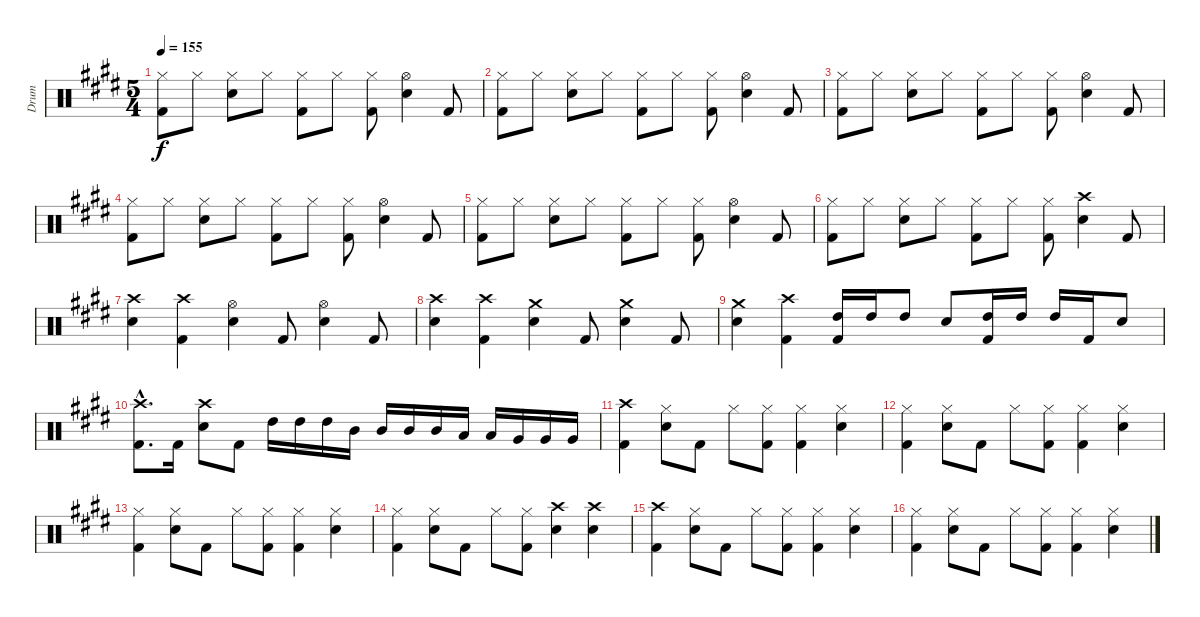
\track ("Drum" "Drum") {instrument percussion}
\staff {score}
\articulation defaults
\ts (5 4)
\tempo 155
\clef neutral
\ks e
("Hi-Hat (closed)" "Kick (hit) 2").8{dy f} "Hi-Hat (closed)".8 ("Hi-Hat (closed)" "Snare (hit) 2").8 "Hi-Hat (closed)".8 ("Hi-Hat (closed)" "Kick (hit) 2").8 "Hi-Hat (closed)".8 ("Hi-Hat (closed)" "Kick (hit) 2").8 ("Hi-Hat (open)" "Snare (hit) 2").4 "Kick (hit) 2".8 |
("Hi-Hat (closed)" "Kick (hit) 2").8 "Hi-Hat (closed)".8 ("Hi-Hat (closed)" "Snare (hit) 2").8 "Hi-Hat (closed)".8 ("Hi-Hat (closed)" "Kick (hit) 2").8 "Hi-Hat (closed)".8 ("Hi-Hat (closed)" "Kick (hit) 2").8 ("Hi-Hat (open)" "Snare (hit) 2").4 "Kick (hit) 2".8 |
("Hi-Hat (closed)" "Kick (hit) 2").8 "Hi-Hat (closed)".8 ("Hi-Hat (closed)" "Snare (hit) 2").8 "Hi-Hat (closed)".8 ("Hi-Hat (closed)" "Kick (hit) 2").8 "Hi-Hat (closed)".8 ("Hi-Hat (closed)" "Kick (hit) 2").8 ("Hi-Hat (open)" "Snare (hit) 2").4 "Kick (hit) 2".8 |
("Hi-Hat (closed)" "Kick (hit) 2").8 "Hi-Hat (closed)".8 ("Hi-Hat (closed)" "Snare (hit) 2").8 "Hi-Hat (closed)".8 ("Hi-Hat (closed)" "Kick (hit) 2").8 "Hi-Hat (closed)".8 ("Hi-Hat (closed)" "Kick (hit) 2").8 ("Hi-Hat (open)" "Snare (hit) 2").4 "Kick (hit) 2".8 |
("Hi-Hat (closed)" "Kick (hit) 2").8 "Hi-Hat (closed)".8 ("Hi-Hat (closed)" "Snare (hit) 2").8 "Hi-Hat (closed)".8 ("Hi-Hat (closed)" "Kick (hit) 2").8 "Hi-Hat (closed)".8 ("Hi-Hat (closed)" "Kick (hit) 2").8 ("Hi-Hat (open)" "Snare (hit) 2").4 "Kick (hit) 2".8 |
("Hi-Hat (closed)" "Kick (hit) 2").8 "Hi-Hat (closed)".8 ("Hi-Hat (closed)" "Snare (hit) 2").8 "Hi-Hat (closed)".8 ("Hi-Hat (closed)" "Kick (hit) 2").8 "Hi-Hat (closed)".8 ("Hi-Hat (closed)" "Kick (hit) 2").8 ("Crash high (hit)" "Snare (hit) 2").4 "Kick (hit) 2".8 |
("Crash high (hit)" "Snare (hit) 2").4 ("Crash high (hit)" "Kick (hit) 2").4 ("Hi-Hat (open)" "Snare (hit) 2").4 "Kick (hit) 2".8 ("Hi-Hat (open)" "Snare (hit) 2").4 "Kick (hit) 2".8 |
("Crash high (hit)" "Snare (hit) 2").4 ("Crash high (hit)" "Kick (hit) 2").4 ("Crash medium (hit)" "Snare (hit) 2").4 "Kick (hit) 2".8 ("Crash medium (hit)" "Snare (hit) 2").4 "Kick (hit) 2".8 |
("Crash medium (hit)" "Snare (hit) 2").4 ("Crash high (hit)" "Kick (hit) 2").4 ("High Tom (hit)" "Kick (hit) 2").16 "High Tom (hit)".16 "High Tom (hit)".8 "Snare (hit) 2".8 ("High Tom (hit)" "Kick (hit) 2").16 "High Tom (hit)".16 "High Tom (hit)".16 "Kick (hit) 2".16 "Snare (hit) 2".8 |
("Crash high (hit)"{hac} "Kick (hit) 2"{hac}).8{d} "Kick (hit) 2".16 ("Crash high (hit)" "Snare (hit) 2").8 "Kick (hit) 2".8 "High Tom (hit)".16 "High Tom (hit)".16 "High Tom (hit)".16 "Mid Tom (hit)".16 "Mid Tom (hit)".16 "Mid Tom (hit)".16 "Mid Tom (hit)".16 "Low Tom (hit)".16 "Low Tom (hit)".16 "Very Low Tom (hit)".16 "Very Low Tom (hit)".16 "Very Low Tom (hit)".16 |
("Crash high (hit)" "Kick (hit) 2").4 ("Hi-Hat (closed)" "Snare (hit) 2").8 "Kick (hit) 2".8 "Hi-Hat (closed)".8 ("Hi-Hat (closed)" "Kick (hit) 2").8 ("Hi-Hat (closed)" "Kick (hit) 2").4 ("Hi-Hat (closed)" "Snare (hit) 2").4 |
("Hi-Hat (closed)" "Kick (hit) 2").4 ("Hi-Hat (closed)" "Snare (hit) 2").8 "Kick (hit) 2".8 "Hi-Hat (closed)".8 ("Hi-Hat (closed)" "Kick (hit) 2").8 ("Hi-Hat (closed)" "Kick (hit) 2").4 ("Hi-Hat (closed)" "Snare (hit) 2").4 |
("Hi-Hat (closed)" "Kick (hit) 2").4 ("Hi-Hat (closed)" "Snare (hit) 2").8 "Kick (hit) 2".8 "Hi-Hat (closed)".8 ("Hi-Hat (closed)" "Kick (hit) 2").8 ("Hi-Hat (closed)" "Kick (hit) 2").4 ("Hi-Hat (closed)" "Snare (hit) 2").4 |
("Hi-Hat (closed)" "Kick (hit) 2").4 ("Hi-Hat (closed)" "Snare (hit) 2").8 "Kick (hit) 2".8 "Hi-Hat (closed)".8 ("Hi-Hat (closed)" "Kick (hit) 2").8 ("Crash high (hit)" "Snare (hit) 2").4 ("Crash high (hit)" "Snare (hit) 2").4 |
("Crash high (hit)" "Kick (hit) 2").4 ("Hi-Hat (closed)" "Snare (hit) 2").8 "Kick (hit) 2".8 "Hi-Hat (closed)".8 ("Hi-Hat (closed)" "Kick (hit) 2").8 ("Hi-Hat (closed)" "Kick (hit) 2").4 ("Hi-Hat (closed)" "Snare (hit) 2").4 |
("Hi-Hat (closed)" "Kick (hit) 2").4 ("Hi-Hat (closed)" "Snare (hit) 2").8 "Kick (hit) 2".8 "Hi-Hat (closed)".8 ("Hi-Hat (closed)" "Kick (hit) 2").8 ("Hi-Hat (closed)" "Kick (hit) 2").4 ("Hi-Hat (closed)" "Snare (hit) 2").4
